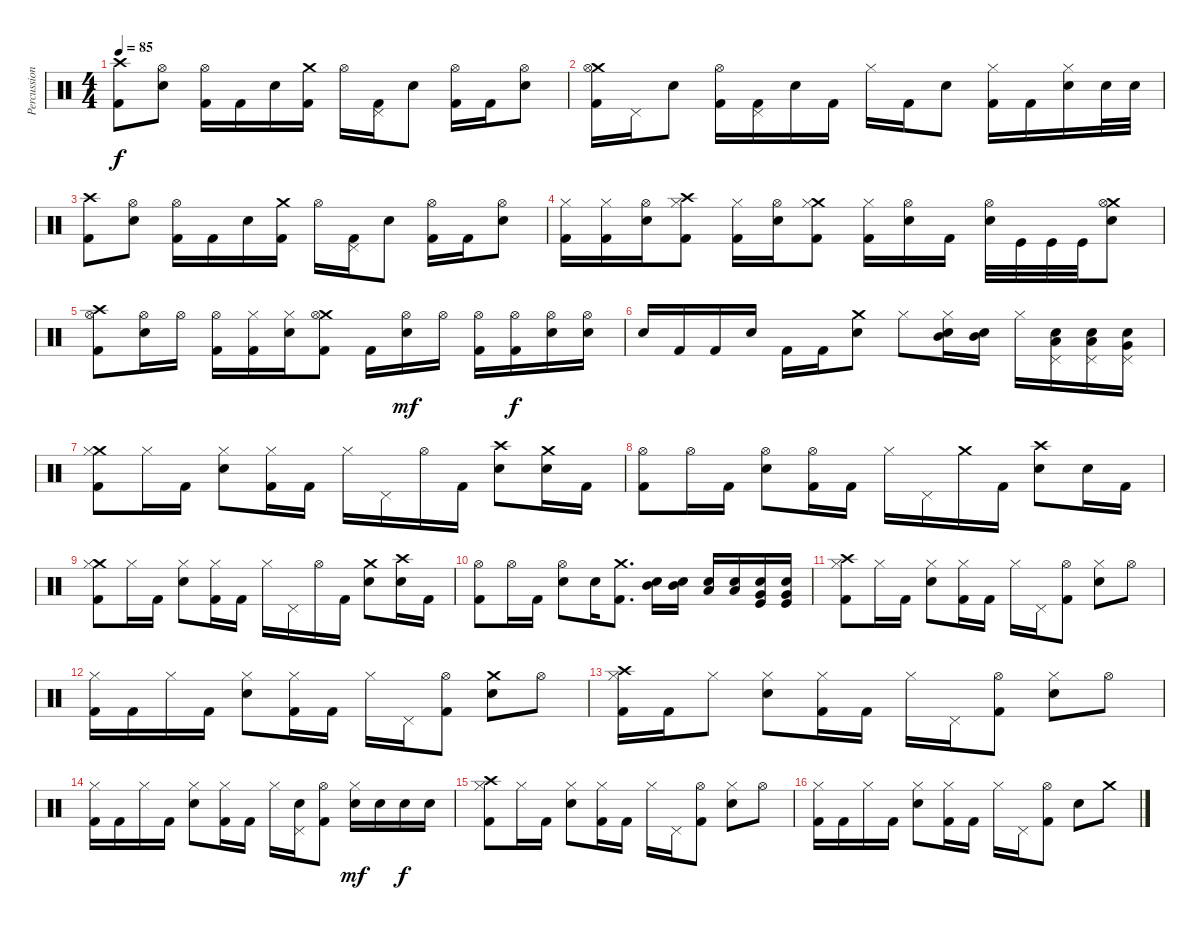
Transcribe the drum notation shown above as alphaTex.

\track ("Percussion" "Percussion") {instrument percussion}
\staff {score}
\articulation defaults
\ts (4 4)
\tempo 85
\clef neutral
\ks c
("Crash high (hit)" "Kick (hit) 2").8{dy f} ("Hi-Hat (open)" "Snare (hit) 2").8 ("Hi-Hat (open)" "Kick (hit) 2").16 "Kick (hit) 2".16 "Snare (hit) 2".16 ("Crash medium (hit)" "Kick (hit) 2").16 "Hi-Hat (open)".16 ("Pedal Hi-Hat (hit)" "Kick (hit) 2").16 "Snare (hit) 2".8 ("Hi-Hat (open)" "Kick (hit) 2").16 "Kick (hit) 2".16 ("Hi-Hat (open)" "Snare (hit) 2").8 |
("Crash medium (hit)" "Hi-Hat (open)" "Kick (hit) 2").16 "Pedal Hi-Hat (hit)".16 "Snare (hit) 2".8 ("Hi-Hat (open)" "Kick (hit) 2").16 ("Pedal Hi-Hat (hit)" "Kick (hit) 2").16 "Snare (hit) 2".16 "Kick (hit) 2".16 "Hi-Hat (closed)".16 "Kick (hit) 2".16 "Snare (hit) 2".8 ("Hi-Hat (closed)" "Kick (hit) 2").16 "Kick (hit) 2".16 ("Hi-Hat (closed)" "Snare (hit) 2").16 "Snare (hit) 2".32 "Snare (hit) 2".32 |
("Crash high (hit)" "Kick (hit) 2").8 ("Hi-Hat (open)" "Snare (hit) 2").8 ("Hi-Hat (open)" "Kick (hit) 2").16 "Kick (hit) 2".16 "Snare (hit) 2".16 ("Crash medium (hit)" "Kick (hit) 2").16 "Hi-Hat (open)".16 ("Pedal Hi-Hat (hit)" "Kick (hit) 2").16 "Snare (hit) 2".8 ("Hi-Hat (open)" "Kick (hit) 2").16 "Kick (hit) 2".16 ("Hi-Hat (open)" "Snare (hit) 2").8 |
("Hi-Hat (closed)" "Kick (hit) 2").16 ("Hi-Hat (closed)" "Kick (hit) 2").16 ("Hi-Hat (open)" "Snare (hit) 2").16 ("Crash high (hit)" "Hi-Hat (closed)" "Kick (hit) 2").8 ("Hi-Hat (closed)" "Kick (hit) 2").16 ("Hi-Hat (open)" "Snare (hit) 2").16 ("Crash medium (hit)" "Hi-Hat (closed)" "Kick (hit) 2").8 ("Hi-Hat (closed)" "Kick (hit) 2").16 ("Hi-Hat (open)" "Snare (hit) 2").16 "Kick (hit) 2".16 ("Hi-Hat (open)" "Snare (hit) 2").32 "Kick (hit)".32 "Kick (hit)".32 "Kick (hit)".32 ("Crash medium (hit)" "Hi-Hat (open)" "Snare (hit) 2").8 |
("Hi-Hat (open)" "Kick (hit) 2" "Crash high (hit)").8 ("Hi-Hat (open)" "Snare (hit) 2").16 "Hi-Hat (open)".16 ("Hi-Hat (open)" "Kick (hit) 2").16 ("Hi-Hat (closed)" "Kick (hit) 2").16 ("Hi-Hat (closed)" "Snare (hit) 2").16 ("Crash medium (hit)" "Hi-Hat (open)" "Kick (hit) 2").8 "Kick (hit) 2".16 ("Hi-Hat (open)" "Snare (hit) 2").16{dy mf} "Hi-Hat (open)".16 ("Hi-Hat (open)" "Kick (hit) 2").16 ("Hi-Hat (open)" "Kick (hit) 2").16{dy f} ("Hi-Hat (open)" "Snare (hit) 2").16 ("Hi-Hat (open)" "Snare (hit) 2").16 |
"Snare (hit) 2".16 "Kick (hit) 2".16 "Kick (hit) 2".16 "Snare (hit) 2".16 "Kick (hit) 2".16 "Kick (hit) 2".16 ("Crash medium (hit)" "Snare (hit) 2").8 "Hi-Hat (closed)".8 ("Mid Tom (hit)" "Electric Snare (hit)" "Hi-Hat (closed)").16 ("Electric Snare (hit)" "Mid Tom (hit)").16 "Hi-Hat (closed)".16 ("Pedal Hi-Hat (hit)" "Electric Snare (hit)" "Low Tom (hit)").16 ("Pedal Hi-Hat (hit)" "Electric Snare (hit)" "Low Tom (hit)").16 ("Pedal Hi-Hat (hit)" "Electric Snare (hit)" "Very Low Tom (hit)").16 |
("Crash medium (hit)" "Kick (hit) 2" "Hi-Hat (closed)").8 "Hi-Hat (closed)".16 "Kick (hit) 2".16 ("Hi-Hat (closed)" "Snare (hit) 2").8 ("Kick (hit) 2" "Hi-Hat (closed)").16 "Kick (hit) 2".16 "Hi-Hat (closed)".16 "Pedal Hi-Hat (hit)".16 "Hi-Hat (open)".16 "Kick (hit) 2".16 ("Snare (hit) 2" "Crash high (hit)").8 ("Crash medium (hit)" "Electric Snare (hit)").16 "Kick (hit) 2".16 |
("Hi-Hat (open)" "Kick (hit) 2").8 "Hi-Hat (open)".16 "Kick (hit) 2".16 ("Snare (hit) 2" "Hi-Hat (open)").8 ("Hi-Hat (open)" "Kick (hit) 2").16 "Kick (hit) 2".16 "Hi-Hat (closed)".16 "Pedal Hi-Hat (hit)".16 "Crash medium (hit)".16 "Kick (hit) 2".16 ("Snare (hit) 2" "Crash high (hit)").8 "Electric Snare (hit)".16 "Kick (hit) 2".16 |
("Crash medium (hit)" "Kick (hit) 2" "Hi-Hat (closed)").8 "Hi-Hat (closed)".16 "Kick (hit) 2".16 ("Hi-Hat (closed)" "Snare (hit) 2").8 ("Kick (hit) 2" "Hi-Hat (closed)").16 "Kick (hit) 2".16 "Hi-Hat (closed)".16 "Pedal Hi-Hat (hit)".16 "Hi-Hat (open)".16 "Kick (hit) 2".16 ("Snare (hit) 2" "Crash medium (hit)").8 ("Electric Snare (hit)" "Crash high (hit)").16 "Kick (hit) 2".16 |
("Hi-Hat (open)" "Kick (hit) 2").8 "Hi-Hat (open)".16 "Kick (hit) 2".16 ("Hi-Hat (open)" "Snare (hit) 2").8 "Snare (hit) 2".16 ("Crash medium (hit)" "Kick (hit) 2").8{d} ("Electric Snare (hit)" "Mid Tom (hit)").16 ("Electric Snare (hit)" "Mid Tom (hit)").16 ("Electric Snare (hit)" "Low Tom (hit)").16 ("Electric Snare (hit)" "Low Tom (hit)").16 ("Very Low Tom (hit)" "Electric Snare (hit)" "Kick (hit)").16 ("Very Low Tom (hit)" "Electric Snare (hit)" "Kick (hit)").16 |
("Hi-Hat (closed)" "Kick (hit) 2" "Crash high (hit)").8 "Hi-Hat (closed)".16 "Kick (hit) 2".16 ("Hi-Hat (closed)" "Snare (hit) 2").8 ("Hi-Hat (closed)" "Kick (hit) 2").16 "Kick (hit) 2".16 "Hi-Hat (closed)".16 "Pedal Hi-Hat (hit)".16 ("Hi-Hat (open)" "Kick (hit) 2").8 ("Hi-Hat (closed)" "Snare (hit) 2").8 "Hi-Hat (open)".8 |
("Hi-Hat (closed)" "Kick (hit) 2").16 "Kick (hit) 2".16 "Hi-Hat (closed)".16 "Kick (hit) 2".16 ("Hi-Hat (closed)" "Snare (hit) 2").8 ("Hi-Hat (closed)" "Kick (hit) 2").16 "Kick (hit) 2".16 "Hi-Hat (closed)".16 "Pedal Hi-Hat (hit)".16 ("Kick (hit) 2" "Hi-Hat (open)").8 ("Snare (hit) 2" "Crash medium (hit)").8 "Hi-Hat (open)".8 |
("Crash high (hit)" "Hi-Hat (closed)" "Kick (hit) 2").16 "Kick (hit) 2".16 "Hi-Hat (closed)".8 ("Hi-Hat (closed)" "Snare (hit) 2").8 ("Hi-Hat (closed)" "Kick (hit) 2").16 "Kick (hit) 2".16 "Hi-Hat (closed)".16 "Pedal Hi-Hat (hit)".16 ("Hi-Hat (open)" "Kick (hit) 2").8 ("Hi-Hat (closed)" "Snare (hit) 2").8 "Hi-Hat (open)".8 |
("Hi-Hat (closed)" "Kick (hit) 2").16 "Kick (hit) 2".16 "Hi-Hat (closed)".16 "Kick (hit) 2".16 ("Hi-Hat (closed)" "Snare (hit) 2").8 ("Hi-Hat (closed)" "Kick (hit) 2").16 "Kick (hit) 2".16 "Hi-Hat (closed)".16 ("Pedal Hi-Hat (hit)" "Electric Snare (hit)").16 ("Hi-Hat (open)" "Kick (hit) 2").8 ("Hi-Hat (closed)" "Snare (hit) 2").16{dy mf} "Snare (hit) 2".16 "Snare (hit) 2".16{dy f} "Snare (hit) 2".16 |
("Hi-Hat (closed)" "Kick (hit) 2" "Crash high (hit)").8 "Hi-Hat (closed)".16 "Kick (hit) 2".16 ("Hi-Hat (closed)" "Snare (hit) 2").8 ("Hi-Hat (closed)" "Kick (hit) 2").16 "Kick (hit) 2".16 "Hi-Hat (closed)".16 "Pedal Hi-Hat (hit)".16 ("Hi-Hat (open)" "Kick (hit) 2").8 ("Hi-Hat (closed)" "Snare (hit) 2").8 "Hi-Hat (open)".8 |
("Hi-Hat (closed)" "Kick (hit) 2").16 "Kick (hit) 2".16 "Hi-Hat (closed)".16 "Kick (hit) 2".16 ("Hi-Hat (closed)" "Snare (hit) 2").8 ("Hi-Hat (closed)" "Kick (hit) 2").16 "Kick (hit) 2".16 "Hi-Hat (closed)".16 "Pedal Hi-Hat (hit)".16 ("Kick (hit) 2" "Hi-Hat (open)").8 "Snare (hit) 2".8 "Crash medium (hit)".8
